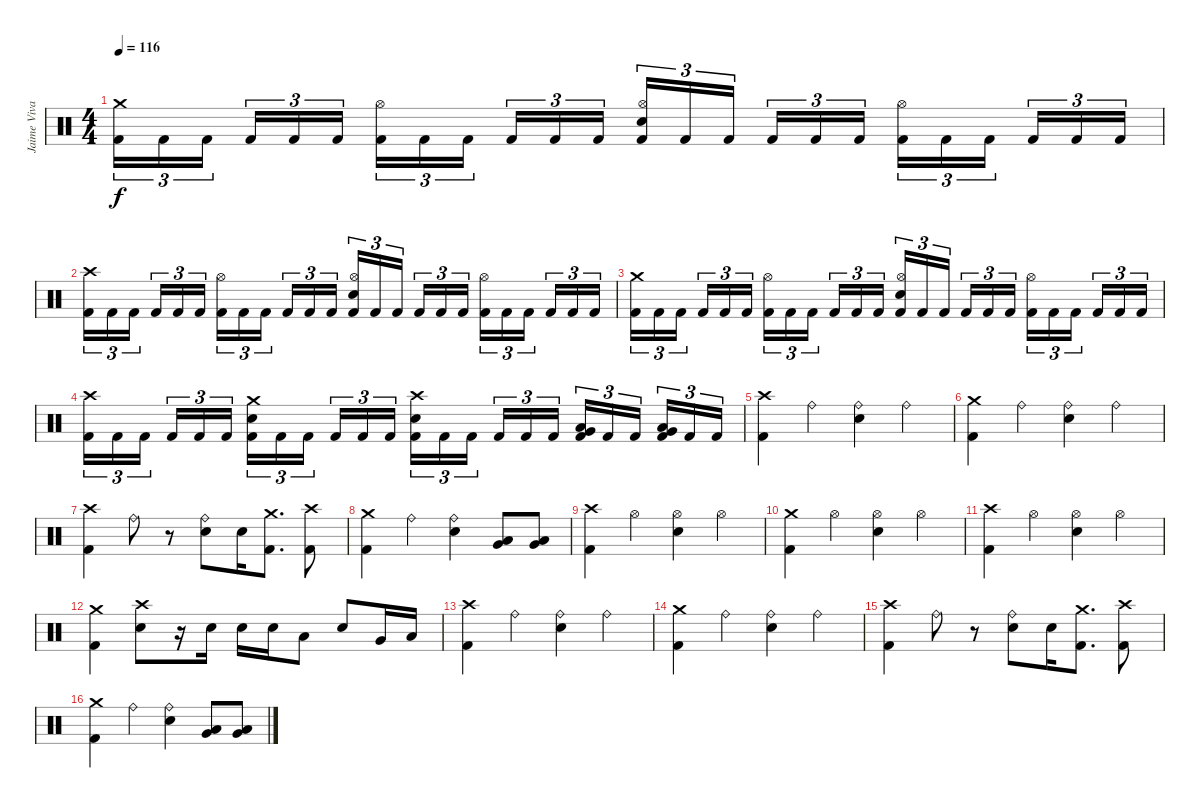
\track ("Jaime Vivar" "Jaime Viva") {instrument percussion}
\staff {score}
\articulation defaults
\ts (4 4)
\tempo 116
\clef neutral
\ks c
("Crash medium (hit)" "Kick (hit) 2").16{tu (3 2) dy f} "Kick (hit) 2".16{tu (3 2)} "Kick (hit) 2".16{tu (3 2) beam splitsecondary} "Kick (hit) 2".16{tu (3 2)} "Kick (hit) 2".16{tu (3 2)} "Kick (hit) 2".16{tu (3 2)} ("Hi-Hat (open)" "Kick (hit) 2").16{tu (3 2)} "Kick (hit) 2".16{tu (3 2)} "Kick (hit) 2".16{tu (3 2) beam splitsecondary} "Kick (hit) 2".16{tu (3 2)} "Kick (hit) 2".16{tu (3 2)} "Kick (hit) 2".16{tu (3 2)} ("Hi-Hat (open)" "Snare (hit) 2" "Kick (hit) 2").16{tu (3 2)} "Kick (hit) 2".16{tu (3 2)} "Kick (hit) 2".16{tu (3 2) beam splitsecondary} "Kick (hit) 2".16{tu (3 2)} "Kick (hit) 2".16{tu (3 2)} "Kick (hit) 2".16{tu (3 2)} ("Hi-Hat (open)" "Kick (hit) 2").16{tu (3 2)} "Kick (hit) 2".16{tu (3 2)} "Kick (hit) 2".16{tu (3 2) beam splitsecondary} "Kick (hit) 2".16{tu (3 2)} "Kick (hit) 2".16{tu (3 2)} "Kick (hit) 2".16{tu (3 2)} |
("Crash high (hit)" "Kick (hit) 2").16{tu (3 2)} "Kick (hit) 2".16{tu (3 2)} "Kick (hit) 2".16{tu (3 2) beam splitsecondary} "Kick (hit) 2".16{tu (3 2)} "Kick (hit) 2".16{tu (3 2)} "Kick (hit) 2".16{tu (3 2)} ("Hi-Hat (open)" "Kick (hit) 2").16{tu (3 2)} "Kick (hit) 2".16{tu (3 2)} "Kick (hit) 2".16{tu (3 2) beam splitsecondary} "Kick (hit) 2".16{tu (3 2)} "Kick (hit) 2".16{tu (3 2)} "Kick (hit) 2".16{tu (3 2)} ("Hi-Hat (open)" "Snare (hit) 2" "Kick (hit) 2").16{tu (3 2)} "Kick (hit) 2".16{tu (3 2)} "Kick (hit) 2".16{tu (3 2) beam splitsecondary} "Kick (hit) 2".16{tu (3 2)} "Kick (hit) 2".16{tu (3 2)} "Kick (hit) 2".16{tu (3 2)} ("Hi-Hat (open)" "Kick (hit) 2").16{tu (3 2)} "Kick (hit) 2".16{tu (3 2)} "Kick (hit) 2".16{tu (3 2) beam splitsecondary} "Kick (hit) 2".16{tu (3 2)} "Kick (hit) 2".16{tu (3 2)} "Kick (hit) 2".16{tu (3 2)} |
("Crash medium (hit)" "Kick (hit) 2").16{tu (3 2)} "Kick (hit) 2".16{tu (3 2)} "Kick (hit) 2".16{tu (3 2) beam splitsecondary} "Kick (hit) 2".16{tu (3 2)} "Kick (hit) 2".16{tu (3 2)} "Kick (hit) 2".16{tu (3 2)} ("Hi-Hat (open)" "Kick (hit) 2").16{tu (3 2)} "Kick (hit) 2".16{tu (3 2)} "Kick (hit) 2".16{tu (3 2) beam splitsecondary} "Kick (hit) 2".16{tu (3 2)} "Kick (hit) 2".16{tu (3 2)} "Kick (hit) 2".16{tu (3 2)} ("Hi-Hat (open)" "Snare (hit) 2" "Kick (hit) 2").16{tu (3 2)} "Kick (hit) 2".16{tu (3 2)} "Kick (hit) 2".16{tu (3 2) beam splitsecondary} "Kick (hit) 2".16{tu (3 2)} "Kick (hit) 2".16{tu (3 2)} "Kick (hit) 2".16{tu (3 2)} ("Hi-Hat (open)" "Kick (hit) 2").16{tu (3 2)} "Kick (hit) 2".16{tu (3 2)} "Kick (hit) 2".16{tu (3 2) beam splitsecondary} "Kick (hit) 2".16{tu (3 2)} "Kick (hit) 2".16{tu (3 2)} "Kick (hit) 2".16{tu (3 2)} |
("Crash high (hit)" "Kick (hit) 2").16{tu (3 2)} "Kick (hit) 2".16{tu (3 2)} "Kick (hit) 2".16{tu (3 2) beam splitsecondary} "Kick (hit) 2".16{tu (3 2)} "Kick (hit) 2".16{tu (3 2)} "Kick (hit) 2".16{tu (3 2)} ("Crash medium (hit)" "Snare (hit) 2" "Kick (hit) 2").16{tu (3 2)} "Kick (hit) 2".16{tu (3 2)} "Kick (hit) 2".16{tu (3 2) beam splitsecondary} "Kick (hit) 2".16{tu (3 2)} "Kick (hit) 2".16{tu (3 2)} "Kick (hit) 2".16{tu (3 2)} ("Crash high (hit)" "Snare (hit) 2" "Kick (hit) 2").16{tu (3 2)} "Kick (hit) 2".16{tu (3 2)} "Kick (hit) 2".16{tu (3 2) beam splitsecondary} "Kick (hit) 2".16{tu (3 2)} "Kick (hit) 2".16{tu (3 2)} "Kick (hit) 2".16{tu (3 2)} ("Low Tom (hit)" "Very Low Tom (hit)" "Kick (hit) 2").16{tu (3 2)} "Kick (hit) 2".16{tu (3 2)} "Kick (hit) 2".16{tu (3 2) beam splitsecondary} ("Very Low Tom (hit)" "Low Floor Tom (hit)" "Kick (hit) 2").16{tu (3 2)} "Kick (hit) 2".16{tu (3 2)} "Kick (hit) 2".16{tu (3 2)} |
("Crash high (hit)" "Kick (hit) 2").4 "Ride (bell)".4 ("Ride (bell)" "Snare (hit) 2").4 "Ride (bell)".4 |
("Crash medium (hit)" "Kick (hit) 2").4 "Ride (bell)".4 ("Ride (bell)" "Snare (hit) 2").4 "Ride (bell)".4 |
("Crash high (hit)" "Kick (hit) 2").4 "Ride (bell)".8 r.8 ("Ride (bell)" "Snare (hit) 2").8 "Snare (hit) 2".16 ("Crash medium (hit)" "Kick (hit) 2").8{d} ("Crash high (hit)" "Kick (hit) 2").8 |
("Crash medium (hit)" "Kick (hit) 2").4 "Ride (bell)".4 ("Ride (bell)" "Snare (hit) 2").4 ("Low Tom (hit)" "Very Low Tom (hit)").8 ("Low Tom (hit)" "Very Low Tom (hit)").8 |
("Crash high (hit)" "Kick (hit) 2").4 "Hi-Hat (open)".4 ("Hi-Hat (open)" "Snare (hit) 2").4 "Hi-Hat (open)".4 |
("Crash medium (hit)" "Kick (hit) 2").4 "Hi-Hat (open)".4 ("Hi-Hat (open)" "Snare (hit) 2").4 "Hi-Hat (open)".4 |
("Crash high (hit)" "Kick (hit) 2").4 "Hi-Hat (open)".4 ("Hi-Hat (open)" "Snare (hit) 2").4 "Hi-Hat (open)".4 |
("Crash medium (hit)" "Kick (hit) 2").4 ("Crash high (hit)" "Snare (hit) 2").8 r.16 "Snare (hit) 2".16 "Snare (hit) 2".16 "Snare (hit) 2".16 "Low Tom (hit)".8 "Snare (hit) 2".8 "Very Low Tom (hit)".16 "Low Floor Tom (hit)".16 |
("Crash high (hit)" "Kick (hit) 2").4 "Ride (bell)".4 ("Ride (bell)" "Snare (hit) 2").4 "Ride (bell)".4 |
("Crash medium (hit)" "Kick (hit) 2").4 "Ride (bell)".4 ("Ride (bell)" "Snare (hit) 2").4 "Ride (bell)".4 |
("Crash high (hit)" "Kick (hit) 2").4 "Ride (bell)".8 r.8 ("Ride (bell)" "Snare (hit) 2").8 "Snare (hit) 2".16 ("Crash medium (hit)" "Kick (hit) 2").8{d} ("Crash high (hit)" "Kick (hit) 2").8 |
("Crash medium (hit)" "Kick (hit) 2").4 "Ride (bell)".4 ("Ride (bell)" "Snare (hit) 2").4 ("Low Tom (hit)" "Very Low Tom (hit)").8 ("Low Tom (hit)" "Very Low Tom (hit)").8
